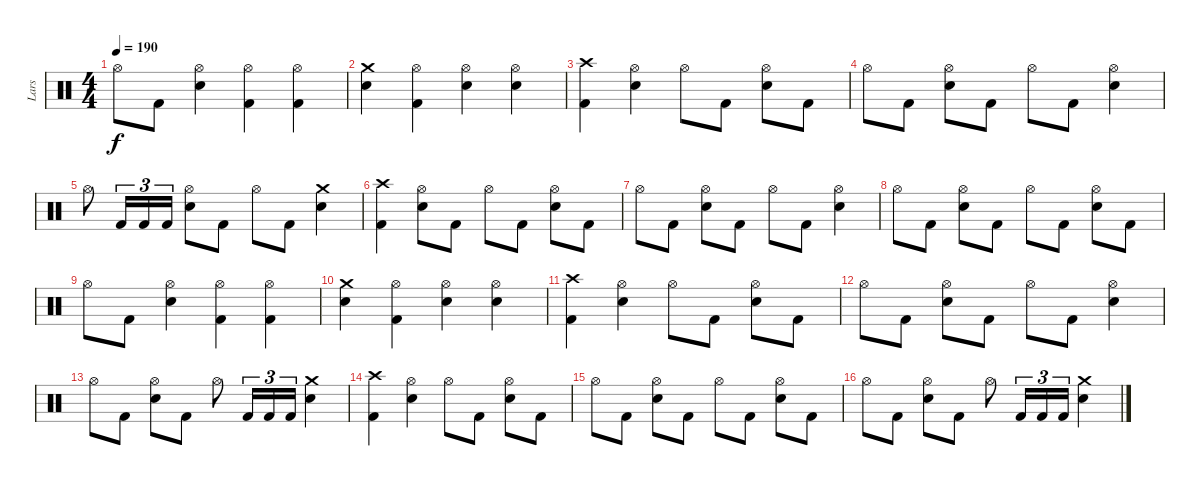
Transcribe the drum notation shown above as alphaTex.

\track ("Lars" "Lars") {instrument percussion}
\staff {score}
\articulation defaults
\ts (4 4)
\tempo 190
\clef neutral
\ks c "Hi-Hat (open)".8{dy f} "Kick (hit) 2".8
("Hi-Hat (open)" "Snare (hit) 2").4 ("Hi-Hat (open)" "Kick (hit) 2").4 ("Hi-Hat (open)" "Kick (hit) 2").4 |
("Crash medium (hit)" "Snare (hit) 2").4 ("Hi-Hat (open)" "Kick (hit) 2").4 ("Hi-Hat (open)" "Snare (hit) 2").4 ("Hi-Hat (open)" "Snare (hit) 2").4 |
("Crash high (hit)" "Kick (hit) 2").4 ("Hi-Hat (open)" "Snare (hit) 2").4 "Hi-Hat (open)".8 "Kick (hit) 2".8 ("Hi-Hat (open)" "Snare (hit) 2").8 "Kick (hit) 2".8 |
"Hi-Hat (open)".8 "Kick (hit) 2".8 ("Hi-Hat (open)" "Snare (hit) 2").8 "Kick (hit) 2".8 "Hi-Hat (open)".8 "Kick (hit) 2".8 ("Hi-Hat (open)" "Snare (hit) 2").4 |
"Hi-Hat (open)".8 "Kick (hit) 2".16{tu (3 2)} "Kick (hit) 2".16{tu (3 2)} "Kick (hit) 2".16{tu (3 2)} ("Hi-Hat (open)" "Snare (hit) 2").8 "Kick (hit) 2".8 "Hi-Hat (open)".8 "Kick (hit) 2".8 ("Crash medium (hit)" "Snare (hit) 2").4 |
("Crash high (hit)" "Kick (hit) 2").4 ("Hi-Hat (open)" "Snare (hit) 2").8 "Kick (hit) 2".8 "Hi-Hat (open)".8 "Kick (hit) 2".8 ("Hi-Hat (open)" "Snare (hit) 2").8 "Kick (hit) 2".8 |
"Hi-Hat (open)".8 "Kick (hit) 2".8 ("Hi-Hat (open)" "Snare (hit) 2").8 "Kick (hit) 2".8 "Hi-Hat (open)".8 "Kick (hit) 2".8 ("Hi-Hat (open)" "Snare (hit) 2").4 |
"Hi-Hat (open)".8 "Kick (hit) 2".8 ("Hi-Hat (open)" "Snare (hit) 2").8 "Kick (hit) 2".8 "Hi-Hat (open)".8 "Kick (hit) 2".8 ("Hi-Hat (open)" "Snare (hit) 2").8 "Kick (hit) 2".8 |
"Hi-Hat (open)".8 "Kick (hit) 2".8 ("Hi-Hat (open)" "Snare (hit) 2").4 ("Hi-Hat (open)" "Kick (hit) 2").4 ("Hi-Hat (open)" "Kick (hit) 2").4 |
("Crash medium (hit)" "Snare (hit) 2").4 ("Hi-Hat (open)" "Kick (hit) 2").4 ("Hi-Hat (open)" "Snare (hit) 2").4 ("Hi-Hat (open)" "Snare (hit) 2").4 |
("Crash high (hit)" "Kick (hit) 2").4 ("Hi-Hat (open)" "Snare (hit) 2").4 "Hi-Hat (open)".8 "Kick (hit) 2".8 ("Hi-Hat (open)" "Snare (hit) 2").8 "Kick (hit) 2".8 |
"Hi-Hat (open)".8 "Kick (hit) 2".8 ("Hi-Hat (open)" "Snare (hit) 2").8 "Kick (hit) 2".8 "Hi-Hat (open)".8 "Kick (hit) 2".8 ("Hi-Hat (open)" "Snare (hit) 2").4 |
"Hi-Hat (open)".8 "Kick (hit) 2".8 ("Hi-Hat (open)" "Snare (hit) 2").8 "Kick (hit) 2".8 "Hi-Hat (open)".8 "Kick (hit) 2".16{tu (3 2)} "Kick (hit) 2".16{tu (3 2)} "Kick (hit) 2".16{tu (3 2)} ("Crash medium (hit)" "Snare (hit) 2").4 |
("Crash high (hit)" "Kick (hit) 2").4 ("Hi-Hat (open)" "Snare (hit) 2").4 "Hi-Hat (open)".8 "Kick (hit) 2".8 ("Hi-Hat (open)" "Snare (hit) 2").8 "Kick (hit) 2".8 |
"Hi-Hat (open)".8 "Kick (hit) 2".8 ("Hi-Hat (open)" "Snare (hit) 2").8 "Kick (hit) 2".8 "Hi-Hat (open)".8 "Kick (hit) 2".8 ("Hi-Hat (open)" "Snare (hit) 2").8 "Kick (hit) 2".8 |
"Hi-Hat (open)".8 "Kick (hit) 2".8 ("Hi-Hat (open)" "Snare (hit) 2").8 "Kick (hit) 2".8 "Hi-Hat (open)".8 "Kick (hit) 2".16{tu (3 2)} "Kick (hit) 2".16{tu (3 2)} "Kick (hit) 2".16{tu (3 2)} ("Crash medium (hit)" "Snare (hit) 2").4
